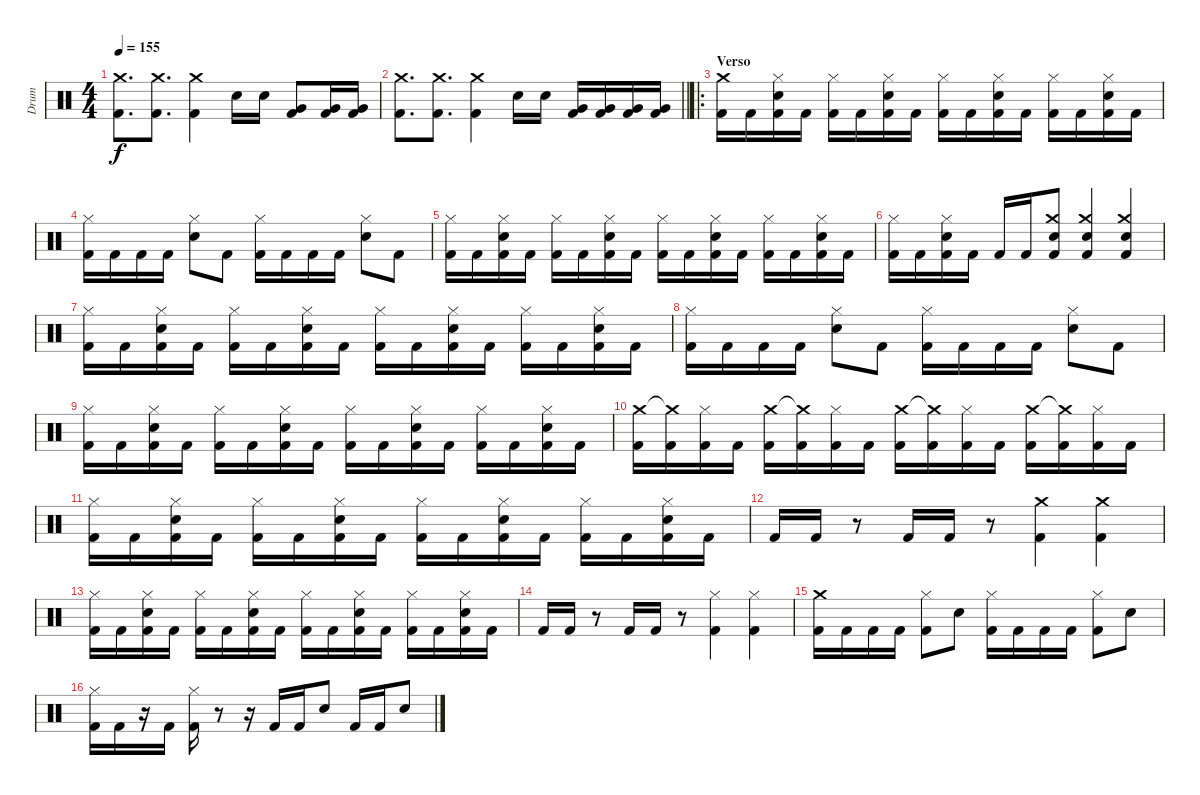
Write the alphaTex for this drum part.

\track ("Drum" "Drum") {instrument percussion}
\staff {score}
\articulation defaults
\ts (4 4)
\tempo 155
\clef neutral
\ks c
("Kick (hit) 2" "Crash medium (hit)").8{d dy f} ("Kick (hit) 2" "Crash medium (hit)").8{d} ("Kick (hit) 2" "Crash medium (hit)").4 "Electric Snare (hit)".16 "Electric Snare (hit)".16 ("Kick (hit) 2" "Very Low Tom (hit)").8 ("Kick (hit) 2" "Very Low Tom (hit)").16 ("Kick (hit) 2" "Very Low Tom (hit)").16 |
\barLineRight lightlight
("Kick (hit) 2" "Crash medium (hit)").8{d} ("Kick (hit) 2" "Crash medium (hit)").8{d} ("Kick (hit) 2" "Crash medium (hit)").4 "Electric Snare (hit)".16 "Electric Snare (hit)".16 ("Kick (hit) 2" "Very Low Tom (hit)").16 ("Kick (hit) 2" "Very Low Tom (hit)").16 ("Kick (hit) 2" "Very Low Tom (hit)").16 ("Kick (hit) 2" "Very Low Tom (hit)").16 |
\ro
\section ("" "Verso")
("Kick (hit) 2" "Crash medium (hit)").16 "Kick (hit) 2".16 ("Kick (hit) 2" "Hi-Hat (closed)" "Electric Snare (hit)").16 "Kick (hit) 2".16 ("Kick (hit) 2" "Hi-Hat (closed)").16 "Kick (hit) 2".16 ("Kick (hit) 2" "Hi-Hat (closed)" "Electric Snare (hit)").16 "Kick (hit) 2".16 ("Kick (hit) 2" "Hi-Hat (closed)").16 "Kick (hit) 2".16 ("Kick (hit) 2" "Hi-Hat (closed)" "Electric Snare (hit)").16 "Kick (hit) 2".16 ("Kick (hit) 2" "Hi-Hat (closed)").16 "Kick (hit) 2".16 ("Kick (hit) 2" "Hi-Hat (closed)" "Electric Snare (hit)").16 "Kick (hit) 2".16 |
("Kick (hit) 2" "Hi-Hat (closed)").16 "Kick (hit) 2".16 "Kick (hit) 2".16 "Kick (hit) 2".16 ("Hi-Hat (closed)" "Electric Snare (hit)").8 "Kick (hit) 2".8 ("Kick (hit) 2" "Hi-Hat (closed)").16 "Kick (hit) 2".16 "Kick (hit) 2".16 "Kick (hit) 2".16 ("Hi-Hat (closed)" "Electric Snare (hit)").8 "Kick (hit) 2".8 |
("Kick (hit) 2" "Hi-Hat (closed)").16 "Kick (hit) 2".16 ("Kick (hit) 2" "Hi-Hat (closed)" "Electric Snare (hit)").16 "Kick (hit) 2".16 ("Kick (hit) 2" "Hi-Hat (closed)").16 "Kick (hit) 2".16 ("Kick (hit) 2" "Hi-Hat (closed)" "Electric Snare (hit)").16 "Kick (hit) 2".16 ("Kick (hit) 2" "Hi-Hat (closed)").16 "Kick (hit) 2".16 ("Kick (hit) 2" "Hi-Hat (closed)" "Electric Snare (hit)").16 "Kick (hit) 2".16 ("Kick (hit) 2" "Hi-Hat (closed)").16 "Kick (hit) 2".16 ("Kick (hit) 2" "Hi-Hat (closed)" "Electric Snare (hit)").16 "Kick (hit) 2".16 |
("Kick (hit) 2" "Hi-Hat (closed)").16 "Kick (hit) 2".16 ("Kick (hit) 2" "Hi-Hat (closed)" "Electric Snare (hit)").16 "Kick (hit) 2".16 "Kick (hit) 2".16 "Kick (hit) 2".16 ("Kick (hit) 2" "Crash medium (hit)" "Electric Snare (hit)").8 ("Kick (hit) 2" "Crash medium (hit)" "Electric Snare (hit)").4 ("Kick (hit) 2" "Crash medium (hit)" "Electric Snare (hit)").4 |
("Kick (hit) 2" "Hi-Hat (closed)").16 "Kick (hit) 2".16 ("Kick (hit) 2" "Hi-Hat (closed)" "Electric Snare (hit)").16 "Kick (hit) 2".16 ("Kick (hit) 2" "Hi-Hat (closed)").16 "Kick (hit) 2".16 ("Kick (hit) 2" "Hi-Hat (closed)" "Electric Snare (hit)").16 "Kick (hit) 2".16 ("Kick (hit) 2" "Hi-Hat (closed)").16 "Kick (hit) 2".16 ("Kick (hit) 2" "Hi-Hat (closed)" "Electric Snare (hit)").16 "Kick (hit) 2".16 ("Kick (hit) 2" "Hi-Hat (closed)").16 "Kick (hit) 2".16 ("Kick (hit) 2" "Hi-Hat (closed)" "Electric Snare (hit)").16 "Kick (hit) 2".16 |
("Kick (hit) 2" "Hi-Hat (closed)").16 "Kick (hit) 2".16 "Kick (hit) 2".16 "Kick (hit) 2".16 ("Hi-Hat (closed)" "Electric Snare (hit)").8 "Kick (hit) 2".8 ("Kick (hit) 2" "Hi-Hat (closed)").16 "Kick (hit) 2".16 "Kick (hit) 2".16 "Kick (hit) 2".16 ("Hi-Hat (closed)" "Electric Snare (hit)").8 "Kick (hit) 2".8 |
("Kick (hit) 2" "Hi-Hat (closed)").16 "Kick (hit) 2".16 ("Kick (hit) 2" "Hi-Hat (closed)" "Electric Snare (hit)").16 "Kick (hit) 2".16 ("Kick (hit) 2" "Hi-Hat (closed)").16 "Kick (hit) 2".16 ("Kick (hit) 2" "Hi-Hat (closed)" "Electric Snare (hit)").16 "Kick (hit) 2".16 ("Kick (hit) 2" "Hi-Hat (closed)").16 "Kick (hit) 2".16 ("Kick (hit) 2" "Hi-Hat (closed)" "Electric Snare (hit)").16 "Kick (hit) 2".16 ("Kick (hit) 2" "Hi-Hat (closed)").16 "Kick (hit) 2".16 ("Kick (hit) 2" "Hi-Hat (closed)" "Electric Snare (hit)").16 "Kick (hit) 2".16 |
("Kick (hit) 2" "Crash medium (hit)").16 ("Kick (hit) 2" "Crash medium (hit)"{t}).16 ("Kick (hit) 2" "Hi-Hat (closed)").16 "Kick (hit) 2".16 ("Kick (hit) 2" "Crash medium (hit)").16 ("Kick (hit) 2" "Crash medium (hit)"{t}).16 ("Kick (hit) 2" "Hi-Hat (closed)").16 "Kick (hit) 2".16 ("Kick (hit) 2" "Crash medium (hit)").16 ("Kick (hit) 2" "Crash medium (hit)"{t}).16 ("Kick (hit) 2" "Hi-Hat (closed)").16 "Kick (hit) 2".16 ("Kick (hit) 2" "Crash medium (hit)").16 ("Kick (hit) 2" "Crash medium (hit)"{t}).16 ("Kick (hit) 2" "Hi-Hat (closed)").16 "Kick (hit) 2".16 |
("Kick (hit) 2" "Hi-Hat (closed)").16 "Kick (hit) 2".16 ("Kick (hit) 2" "Hi-Hat (closed)" "Electric Snare (hit)").16 "Kick (hit) 2".16 ("Kick (hit) 2" "Hi-Hat (closed)").16 "Kick (hit) 2".16 ("Kick (hit) 2" "Hi-Hat (closed)" "Electric Snare (hit)").16 "Kick (hit) 2".16 ("Kick (hit) 2" "Hi-Hat (closed)").16 "Kick (hit) 2".16 ("Kick (hit) 2" "Hi-Hat (closed)" "Electric Snare (hit)").16 "Kick (hit) 2".16 ("Kick (hit) 2" "Hi-Hat (closed)").16 "Kick (hit) 2".16 ("Kick (hit) 2" "Hi-Hat (closed)" "Electric Snare (hit)").16 "Kick (hit) 2".16 |
"Kick (hit) 2".16 "Kick (hit) 2".16 r.8 "Kick (hit) 2".16 "Kick (hit) 2".16 r.8 ("Kick (hit) 2" "Crash medium (hit)").4 ("Kick (hit) 2" "Crash medium (hit)").4 |
("Kick (hit) 2" "Hi-Hat (closed)").16 "Kick (hit) 2".16 ("Kick (hit) 2" "Hi-Hat (closed)" "Electric Snare (hit)").16 "Kick (hit) 2".16 ("Kick (hit) 2" "Hi-Hat (closed)").16 "Kick (hit) 2".16 ("Kick (hit) 2" "Hi-Hat (closed)" "Electric Snare (hit)").16 "Kick (hit) 2".16 ("Kick (hit) 2" "Hi-Hat (closed)").16 "Kick (hit) 2".16 ("Kick (hit) 2" "Hi-Hat (closed)" "Electric Snare (hit)").16 "Kick (hit) 2".16 ("Kick (hit) 2" "Hi-Hat (closed)").16 "Kick (hit) 2".16 ("Kick (hit) 2" "Hi-Hat (closed)" "Electric Snare (hit)").16 "Kick (hit) 2".16 |
"Kick (hit) 2".16 "Kick (hit) 2".16 r.8 "Kick (hit) 2".16 "Kick (hit) 2".16 r.8 ("Kick (hit) 2" "Hi-Hat (closed)").4 ("Kick (hit) 2" "Hi-Hat (closed)").4 |
("Kick (hit) 2" "Crash medium (hit)").16 "Kick (hit) 2".16 "Kick (hit) 2".16 "Kick (hit) 2".16 ("Kick (hit) 2" "Hi-Hat (closed)").8 "Electric Snare (hit)".8 ("Kick (hit) 2" "Hi-Hat (closed)").16 "Kick (hit) 2".16 "Kick (hit) 2".16 "Kick (hit) 2".16 ("Kick (hit) 2" "Hi-Hat (closed)").8 "Electric Snare (hit)".8 |
("Kick (hit) 2" "Hi-Hat (closed)").16 "Kick (hit) 2".16 r.16 "Kick (hit) 2".16 ("Kick (hit) 2" "Hi-Hat (closed)").16 r.8 r.16 "Kick (hit) 2".16 "Kick (hit) 2".16 "Electric Snare (hit)".8 "Kick (hit) 2".16 "Kick (hit) 2".16 "Electric Snare (hit)".8
